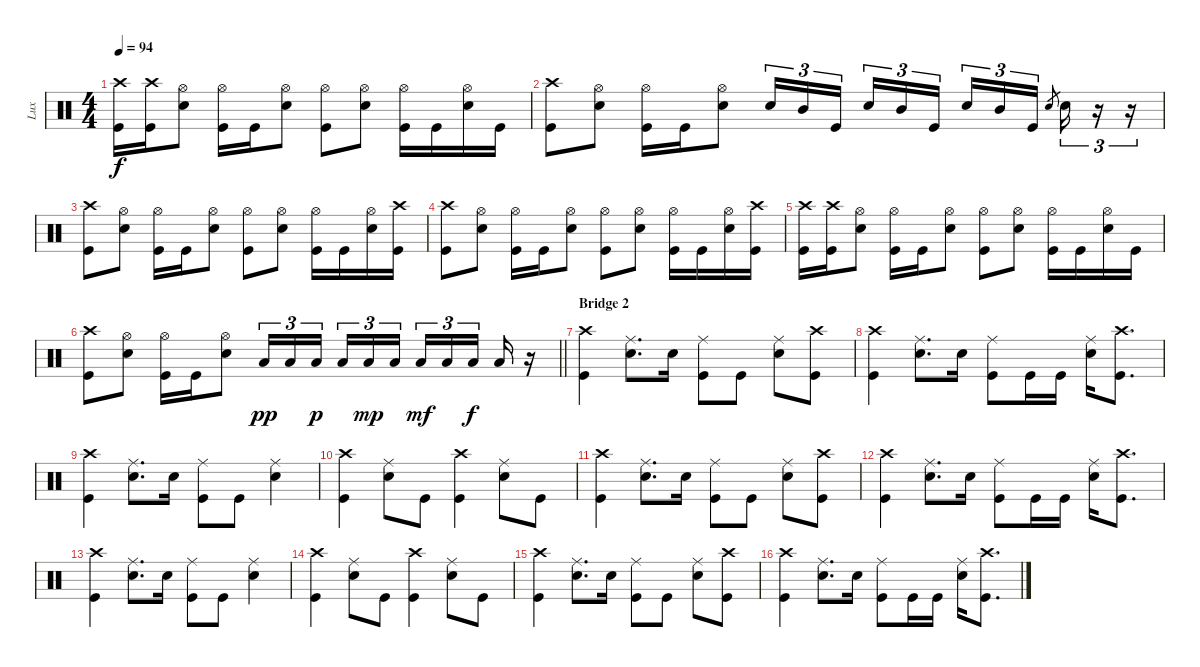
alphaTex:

\track ("Lux" "Lux") {instrument percussion}
\staff {score}
\articulation defaults
\ts (4 4)
\tempo 94
\clef neutral
\ks c
("Crash high (hit)" "Kick (hit)").16{dy f} ("Crash high (hit)" "Kick (hit)").16 ("Hi-Hat (open)" "Snare (hit) 2").8 ("Hi-Hat (open)" "Kick (hit)").16 "Kick (hit)".16 ("Hi-Hat (open)" "Snare (hit) 2").8 ("Hi-Hat (open)" "Kick (hit)").8 ("Hi-Hat (open)" "Snare (hit) 2").8 ("Hi-Hat (open)" "Kick (hit)").16 "Kick (hit)".16 ("Hi-Hat (open)" "Snare (hit) 2").16 "Kick (hit)".16 |
("Crash high (hit)" "Kick (hit)").8 ("Hi-Hat (open)" "Snare (hit) 2").8 ("Hi-Hat (open)" "Kick (hit)").16 "Kick (hit)".16 ("Hi-Hat (open)" "Snare (hit) 2").8 "Snare (hit) 2".16{tu (3 2)} "Mid Tom (hit)".16{tu (3 2)} "Kick (hit)".16{tu (3 2) beam splitsecondary} "Snare (hit) 2".16{tu (3 2)} "Mid Tom (hit)".16{tu (3 2)} "Kick (hit)".16{tu (3 2)} "Snare (hit) 2".16{tu (3 2)} "Mid Tom (hit)".16{tu (3 2)} "Kick (hit)".16{tu (3 2)} "Snare (hit) 2".8{gr beam splitsecondary} "Snare (hit) 2".16{tu (3 2)} r.16{tu (3 2)} r.16{tu (3 2)} |
("Crash high (hit)" "Kick (hit)").8 ("Hi-Hat (open)" "Snare (hit) 2").8 ("Hi-Hat (open)" "Kick (hit)").16 "Kick (hit)".16 ("Hi-Hat (open)" "Snare (hit) 2").8 ("Hi-Hat (open)" "Kick (hit)").8 ("Hi-Hat (open)" "Snare (hit) 2").8 ("Hi-Hat (open)" "Kick (hit)").16 "Kick (hit)".16 ("Hi-Hat (open)" "Snare (hit) 2").16 ("Crash high (hit)" "Kick (hit)").16 |
("Crash high (hit)" "Kick (hit)").8 ("Hi-Hat (open)" "Snare (hit) 2").8 ("Hi-Hat (open)" "Kick (hit)").16 "Kick (hit)".16 ("Hi-Hat (open)" "Snare (hit) 2").8 ("Hi-Hat (open)" "Kick (hit)").8 ("Hi-Hat (open)" "Snare (hit) 2").8 ("Hi-Hat (open)" "Kick (hit)").16 "Kick (hit)".16 ("Hi-Hat (open)" "Snare (hit) 2").16 ("Crash high (hit)" "Kick (hit)").16 |
("Crash high (hit)" "Kick (hit)").16 ("Crash high (hit)" "Kick (hit)").16 ("Hi-Hat (open)" "Snare (hit) 2").8 ("Hi-Hat (open)" "Kick (hit)").16 "Kick (hit)".16 ("Hi-Hat (open)" "Snare (hit) 2").8 ("Hi-Hat (open)" "Kick (hit)").8 ("Hi-Hat (open)" "Snare (hit) 2").8 ("Hi-Hat (open)" "Kick (hit)").16 "Kick (hit)".16 ("Hi-Hat (open)" "Snare (hit) 2").16 "Kick (hit)".16 |
\barLineRight lightlight
("Crash high (hit)" "Kick (hit)").8 ("Hi-Hat (open)" "Snare (hit) 2").8 ("Hi-Hat (open)" "Kick (hit)").16 "Kick (hit)".16 ("Hi-Hat (open)" "Snare (hit) 2").8 "Low Tom (hit)".16{tu (3 2) dy pp} "Low Tom (hit)".16{tu (3 2)} "Low Tom (hit)".16{tu (3 2) dy p beam splitsecondary} "Low Tom (hit)".16{tu (3 2)} "Low Tom (hit)".16{tu (3 2) dy mp} "Low Tom (hit)".16{tu (3 2)} "Low Tom (hit)".16{tu (3 2) dy mf} "Low Tom (hit)".16{tu (3 2)} "Low Tom (hit)".16{tu (3 2) dy f beam splitsecondary} "Low Tom (hit)".16 r.16 |
\section ("" "Bridge 2")
("Crash high (hit)" "Kick (hit)").4 ("Ride (middle)" "Snare (hit) 2").8{d} "Snare (hit) 2".16 ("Ride (middle)" "Kick (hit)").8 "Kick (hit)".8 ("Ride (middle)" "Snare (hit) 2").8 ("Crash high (hit)" "Kick (hit)").8 |
("Crash high (hit)" "Kick (hit)").4 ("Ride (middle)" "Snare (hit) 2").8{d} "Snare (hit) 2".16 ("Ride (middle)" "Kick (hit)").8 "Kick (hit)".16 "Kick (hit)".16 ("Ride (middle)" "Snare (hit) 2").16 ("Crash high (hit)" "Kick (hit)").8{d} |
("Crash high (hit)" "Kick (hit)").4 ("Ride (middle)" "Snare (hit) 2").8{d} "Snare (hit) 2".16 ("Ride (middle)" "Kick (hit)").8 "Kick (hit)".8 ("Ride (middle)" "Snare (hit) 2").4 |
("Crash high (hit)" "Kick (hit)").4 ("Ride (middle)" "Snare (hit) 2").8 "Kick (hit)".8 ("Crash high (hit)" "Kick (hit)").4 ("Ride (middle)" "Snare (hit) 2").8 "Kick (hit)".8 |
("Crash high (hit)" "Kick (hit)").4 ("Ride (middle)" "Snare (hit) 2").8{d} "Snare (hit) 2".16 ("Ride (middle)" "Kick (hit)").8 "Kick (hit)".8 ("Ride (middle)" "Snare (hit) 2").8 ("Crash high (hit)" "Kick (hit)").8 |
("Crash high (hit)" "Kick (hit)").4 ("Ride (middle)" "Snare (hit) 2").8{d} "Snare (hit) 2".16 ("Ride (middle)" "Kick (hit)").8 "Kick (hit)".16 "Kick (hit)".16 ("Ride (middle)" "Snare (hit) 2").16 ("Crash high (hit)" "Kick (hit)").8{d} |
("Crash high (hit)" "Kick (hit)").4 ("Ride (middle)" "Snare (hit) 2").8{d} "Snare (hit) 2".16 ("Ride (middle)" "Kick (hit)").8 "Kick (hit)".8 ("Ride (middle)" "Snare (hit) 2").4 |
("Crash high (hit)" "Kick (hit)").4 ("Ride (middle)" "Snare (hit) 2").8 "Kick (hit)".8 ("Crash high (hit)" "Kick (hit)").4 ("Ride (middle)" "Snare (hit) 2").8 "Kick (hit)".8 |
("Crash high (hit)" "Kick (hit)").4 ("Ride (middle)" "Snare (hit) 2").8{d} "Snare (hit) 2".16 ("Ride (middle)" "Kick (hit)").8 "Kick (hit)".8 ("Ride (middle)" "Snare (hit) 2").8 ("Crash high (hit)" "Kick (hit)").8 |
("Crash high (hit)" "Kick (hit)").4 ("Ride (middle)" "Snare (hit) 2").8{d} "Snare (hit) 2".16 ("Ride (middle)" "Kick (hit)").8 "Kick (hit)".16 "Kick (hit)".16 ("Ride (middle)" "Snare (hit) 2").16 ("Crash high (hit)" "Kick (hit)").8{d}
